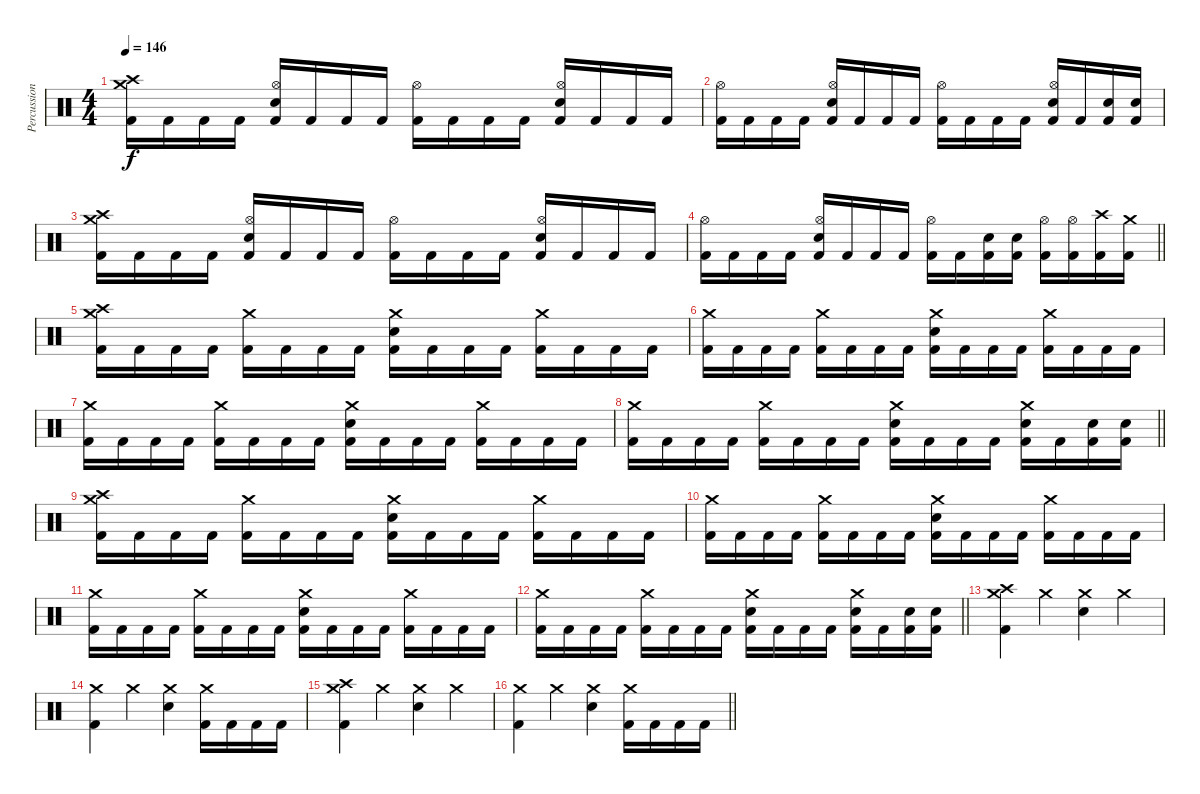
\track ("Percussion" "Percussion") {instrument percussion}
\staff {score}
\articulation defaults
\ts (4 4)
\tempo 146
\clef neutral
\ks c
("Crash high (hit)" "Crash medium (hit)" "Kick (hit) 2").16{dy f} "Kick (hit) 2".16 "Kick (hit) 2".16 "Kick (hit) 2".16 ("Hi-Hat (open)" "Snare (hit) 2" "Kick (hit) 2").16 "Kick (hit) 2".16 "Kick (hit) 2".16 "Kick (hit) 2".16 ("Hi-Hat (open)" "Kick (hit) 2").16 "Kick (hit) 2".16 "Kick (hit) 2".16 "Kick (hit) 2".16 ("Hi-Hat (open)" "Snare (hit) 2" "Kick (hit) 2").16 "Kick (hit) 2".16 "Kick (hit) 2".16 "Kick (hit) 2".16 |
("Hi-Hat (open)" "Kick (hit) 2").16 "Kick (hit) 2".16 "Kick (hit) 2".16 "Kick (hit) 2".16 ("Hi-Hat (open)" "Snare (hit) 2" "Kick (hit) 2").16 "Kick (hit) 2".16 "Kick (hit) 2".16 "Kick (hit) 2".16 ("Hi-Hat (open)" "Kick (hit) 2").16 "Kick (hit) 2".16 "Kick (hit) 2".16 "Kick (hit) 2".16 ("Hi-Hat (open)" "Snare (hit) 2" "Kick (hit) 2").16 "Kick (hit) 2".16 ("Snare (hit) 2" "Kick (hit) 2").16 ("Snare (hit) 2" "Kick (hit) 2").16 |
("Crash high (hit)" "Crash medium (hit)" "Kick (hit) 2").16 "Kick (hit) 2".16 "Kick (hit) 2".16 "Kick (hit) 2".16 ("Hi-Hat (open)" "Snare (hit) 2" "Kick (hit) 2").16 "Kick (hit) 2".16 "Kick (hit) 2".16 "Kick (hit) 2".16 ("Hi-Hat (open)" "Kick (hit) 2").16 "Kick (hit) 2".16 "Kick (hit) 2".16 "Kick (hit) 2".16 ("Hi-Hat (open)" "Snare (hit) 2" "Kick (hit) 2").16 "Kick (hit) 2".16 "Kick (hit) 2".16 "Kick (hit) 2".16 |
\barLineRight lightlight
("Hi-Hat (open)" "Kick (hit) 2").16 "Kick (hit) 2".16 "Kick (hit) 2".16 "Kick (hit) 2".16 ("Hi-Hat (open)" "Snare (hit) 2" "Kick (hit) 2").16 "Kick (hit) 2".16 "Kick (hit) 2".16 "Kick (hit) 2".16 ("Hi-Hat (open)" "Kick (hit) 2").16 "Kick (hit) 2".16 ("Snare (hit) 2" "Kick (hit) 2").16 ("Snare (hit) 2" "Kick (hit) 2").16 ("Hi-Hat (open)" "Kick (hit) 2").16 ("Hi-Hat (open)" "Kick (hit) 2").16 ("Crash high (hit)" "Kick (hit) 2").16 ("Crash medium (hit)" "Kick (hit) 2").16 |
("Crash high (hit)" "Crash medium (hit)" "Kick (hit) 2").16 "Kick (hit) 2".16 "Kick (hit) 2".16 "Kick (hit) 2".16 ("Crash medium (hit)" "Kick (hit) 2").16 "Kick (hit) 2".16 "Kick (hit) 2".16 "Kick (hit) 2".16 ("Crash medium (hit)" "Snare (hit) 2" "Kick (hit) 2").16 "Kick (hit) 2".16 "Kick (hit) 2".16 "Kick (hit) 2".16 ("Crash medium (hit)" "Kick (hit) 2").16 "Kick (hit) 2".16 "Kick (hit) 2".16 "Kick (hit) 2".16 |
("Crash medium (hit)" "Kick (hit) 2").16 "Kick (hit) 2".16 "Kick (hit) 2".16 "Kick (hit) 2".16 ("Crash medium (hit)" "Kick (hit) 2").16 "Kick (hit) 2".16 "Kick (hit) 2".16 "Kick (hit) 2".16 ("Crash medium (hit)" "Snare (hit) 2" "Kick (hit) 2").16 "Kick (hit) 2".16 "Kick (hit) 2".16 "Kick (hit) 2".16 ("Crash medium (hit)" "Kick (hit) 2").16 "Kick (hit) 2".16 "Kick (hit) 2".16 "Kick (hit) 2".16 |
("Crash medium (hit)" "Kick (hit) 2").16 "Kick (hit) 2".16 "Kick (hit) 2".16 "Kick (hit) 2".16 ("Crash medium (hit)" "Kick (hit) 2").16 "Kick (hit) 2".16 "Kick (hit) 2".16 "Kick (hit) 2".16 ("Crash medium (hit)" "Snare (hit) 2" "Kick (hit) 2").16 "Kick (hit) 2".16 "Kick (hit) 2".16 "Kick (hit) 2".16 ("Crash medium (hit)" "Kick (hit) 2").16 "Kick (hit) 2".16 "Kick (hit) 2".16 "Kick (hit) 2".16 |
\barLineRight lightlight
("Crash medium (hit)" "Kick (hit) 2").16 "Kick (hit) 2".16 "Kick (hit) 2".16 "Kick (hit) 2".16 ("Crash medium (hit)" "Kick (hit) 2").16 "Kick (hit) 2".16 "Kick (hit) 2".16 "Kick (hit) 2".16 ("Crash medium (hit)" "Snare (hit) 2" "Kick (hit) 2").16 "Kick (hit) 2".16 "Kick (hit) 2".16 "Kick (hit) 2".16 ("Crash medium (hit)" "Snare (hit) 2" "Kick (hit) 2").16 "Kick (hit) 2".16 ("Snare (hit) 2" "Kick (hit) 2").16 ("Snare (hit) 2" "Kick (hit) 2").16 |
("Crash high (hit)" "Crash medium (hit)" "Kick (hit) 2").16 "Kick (hit) 2".16 "Kick (hit) 2".16 "Kick (hit) 2".16 ("Crash medium (hit)" "Kick (hit) 2").16 "Kick (hit) 2".16 "Kick (hit) 2".16 "Kick (hit) 2".16 ("Crash medium (hit)" "Snare (hit) 2" "Kick (hit) 2").16 "Kick (hit) 2".16 "Kick (hit) 2".16 "Kick (hit) 2".16 ("Crash medium (hit)" "Kick (hit) 2").16 "Kick (hit) 2".16 "Kick (hit) 2".16 "Kick (hit) 2".16 |
("Crash medium (hit)" "Kick (hit) 2").16 "Kick (hit) 2".16 "Kick (hit) 2".16 "Kick (hit) 2".16 ("Crash medium (hit)" "Kick (hit) 2").16 "Kick (hit) 2".16 "Kick (hit) 2".16 "Kick (hit) 2".16 ("Crash medium (hit)" "Snare (hit) 2" "Kick (hit) 2").16 "Kick (hit) 2".16 "Kick (hit) 2".16 "Kick (hit) 2".16 ("Crash medium (hit)" "Kick (hit) 2").16 "Kick (hit) 2".16 "Kick (hit) 2".16 "Kick (hit) 2".16 |
("Crash medium (hit)" "Kick (hit) 2").16 "Kick (hit) 2".16 "Kick (hit) 2".16 "Kick (hit) 2".16 ("Crash medium (hit)" "Kick (hit) 2").16 "Kick (hit) 2".16 "Kick (hit) 2".16 "Kick (hit) 2".16 ("Crash medium (hit)" "Snare (hit) 2" "Kick (hit) 2").16 "Kick (hit) 2".16 "Kick (hit) 2".16 "Kick (hit) 2".16 ("Crash medium (hit)" "Kick (hit) 2").16 "Kick (hit) 2".16 "Kick (hit) 2".16 "Kick (hit) 2".16 |
\barLineRight lightlight
("Crash medium (hit)" "Kick (hit) 2").16 "Kick (hit) 2".16 "Kick (hit) 2".16 "Kick (hit) 2".16 ("Crash medium (hit)" "Kick (hit) 2").16 "Kick (hit) 2".16 "Kick (hit) 2".16 "Kick (hit) 2".16 ("Crash medium (hit)" "Snare (hit) 2" "Kick (hit) 2").16 "Kick (hit) 2".16 "Kick (hit) 2".16 "Kick (hit) 2".16 ("Crash medium (hit)" "Snare (hit) 2" "Kick (hit) 2").16 "Kick (hit) 2".16 ("Snare (hit) 2" "Kick (hit) 2").16 ("Snare (hit) 2" "Kick (hit) 2").16 |
("Crash high (hit)" "Crash medium (hit)" "Kick (hit) 2").4 "Crash medium (hit)".4 ("Crash medium (hit)" "Snare (hit) 2").4 "Crash medium (hit)".4 |
("Crash medium (hit)" "Kick (hit) 2").4 "Crash medium (hit)".4 ("Crash medium (hit)" "Snare (hit) 2").4 ("Crash medium (hit)" "Kick (hit) 2").16 "Kick (hit) 2".16 "Kick (hit) 2".16 "Kick (hit) 2".16 |
("Crash high (hit)" "Crash medium (hit)" "Kick (hit) 2").4 "Crash medium (hit)".4 ("Crash medium (hit)" "Snare (hit) 2").4 "Crash medium (hit)".4 |
\barLineRight lightlight
("Crash medium (hit)" "Kick (hit) 2").4 "Crash medium (hit)".4 ("Crash medium (hit)" "Snare (hit) 2").4 ("Crash medium (hit)" "Kick (hit) 2").16 "Kick (hit) 2".16 "Kick (hit) 2".16 "Kick (hit) 2".16
